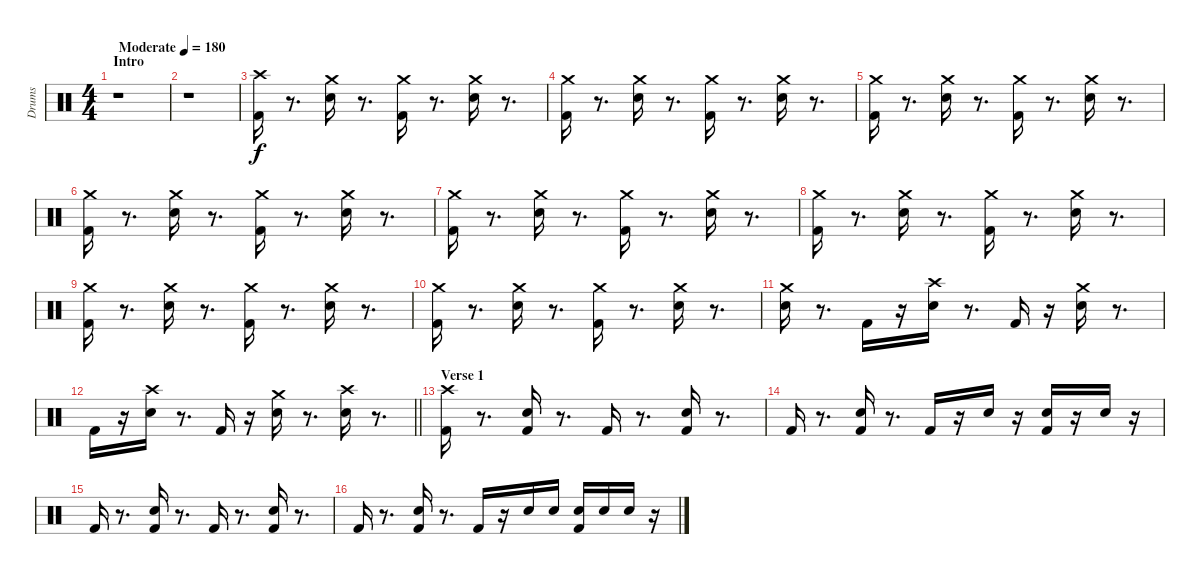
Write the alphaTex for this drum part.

\track ("Drums" "Drums") {instrument percussion}
\staff {score}
\articulation defaults
\ts (4 4)
\section ("" "Intro")
\tempo (180 "Moderate")
\clef neutral
\ks c
r.1{dy f} |
r.1 |
("Kick (hit) 2" "Crash high (hit)").16 r.8{d} ("Snare (hit) 2" "Crash medium (hit)").16 r.8{d} ("Kick (hit) 2" "Crash medium (hit)").16 r.8{d} ("Snare (hit) 2" "Crash medium (hit)").16 r.8{d} |
("Kick (hit) 2" "Crash medium (hit)").16 r.8{d} ("Snare (hit) 2" "Crash medium (hit)").16 r.8{d} ("Kick (hit) 2" "Crash medium (hit)").16 r.8{d} ("Snare (hit) 2" "Crash medium (hit)").16 r.8{d} |
("Kick (hit) 2" "Crash medium (hit)").16 r.8{d} ("Snare (hit) 2" "Crash medium (hit)").16 r.8{d} ("Kick (hit) 2" "Crash medium (hit)").16 r.8{d} ("Snare (hit) 2" "Crash medium (hit)").16 r.8{d} |
("Kick (hit) 2" "Crash medium (hit)").16 r.8{d} ("Snare (hit) 2" "Crash medium (hit)").16 r.8{d} ("Kick (hit) 2" "Crash medium (hit)").16 r.8{d} ("Snare (hit) 2" "Crash medium (hit)").16 r.8{d} |
("Kick (hit) 2" "Crash medium (hit)").16 r.8{d} ("Snare (hit) 2" "Crash medium (hit)").16 r.8{d} ("Kick (hit) 2" "Crash medium (hit)").16 r.8{d} ("Snare (hit) 2" "Crash medium (hit)").16 r.8{d} |
("Kick (hit) 2" "Crash medium (hit)").16 r.8{d} ("Snare (hit) 2" "Crash medium (hit)").16 r.8{d} ("Kick (hit) 2" "Crash medium (hit)").16 r.8{d} ("Snare (hit) 2" "Crash medium (hit)").16 r.8{d} |
("Kick (hit) 2" "Crash medium (hit)").16 r.8{d} ("Snare (hit) 2" "Crash medium (hit)").16 r.8{d} ("Kick (hit) 2" "Crash medium (hit)").16 r.8{d} ("Snare (hit) 2" "Crash medium (hit)").16 r.8{d} |
("Kick (hit) 2" "Crash medium (hit)").16 r.8{d} ("Snare (hit) 2" "Crash medium (hit)").16 r.8{d} ("Kick (hit) 2" "Crash medium (hit)").16 r.8{d} ("Snare (hit) 2" "Crash medium (hit)").16 r.8{d} |
("Crash medium (hit)" "Snare (hit) 2").16 r.8{d} "Kick (hit) 2".16 r.16 ("Snare (hit) 2" "Crash high (hit)").16 r.8{d} "Kick (hit) 2".16 r.16 ("Snare (hit) 2" "Crash medium (hit)").16 r.8{d} |
\barLineRight lightlight "Kick (hit) 2".16
r.16 ("Snare (hit) 2" "Crash high (hit)").16 r.8{d} "Kick (hit) 2".16 r.16 ("Snare (hit) 2" "Crash medium (hit)").16 r.8{d} ("Snare (hit) 2" "Crash high (hit)").16 r.8{d} |
\section ("" "Verse 1")
("Kick (hit) 2" "Crash high (hit)").16 r.8{d} ("Kick (hit) 2" "Snare (hit) 2").16 r.8{d} "Kick (hit) 2".16 r.8{d} ("Kick (hit) 2" "Snare (hit) 2").16 r.8{d} |
"Kick (hit) 2".16 r.8{d} ("Kick (hit) 2" "Snare (hit) 2").16 r.8{d} "Kick (hit) 2".16 r.16 "Snare (hit) 2".16 r.16 ("Kick (hit) 2" "Snare (hit) 2").16 r.16 "Snare (hit) 2".16 r.16 |
"Kick (hit) 2".16 r.8{d} ("Kick (hit) 2" "Snare (hit) 2").16 r.8{d} "Kick (hit) 2".16 r.8{d} ("Kick (hit) 2" "Snare (hit) 2").16 r.8{d} |
"Kick (hit) 2".16 r.8{d} ("Kick (hit) 2" "Snare (hit) 2").16 r.8{d} "Kick (hit) 2".16 r.16 "Snare (hit) 2".16 "Snare (hit) 2".16 ("Kick (hit) 2" "Snare (hit) 2").16 "Snare (hit) 2".16 "Snare (hit) 2".16 r.16
